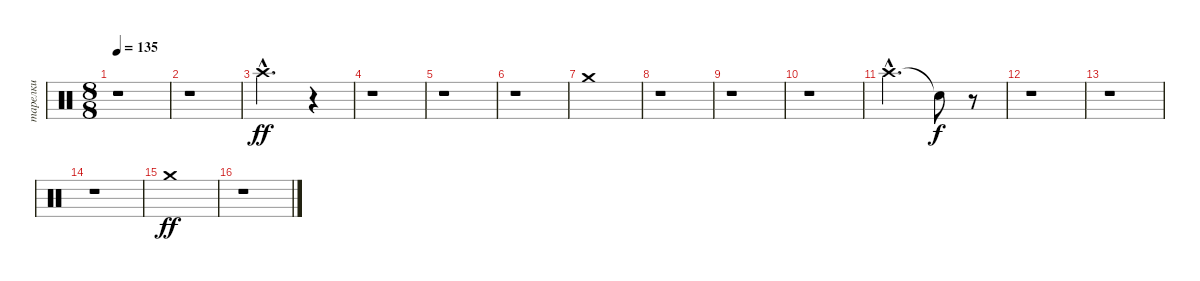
\track ("тарелки" "тарелки") {instrument percussion}
\staff {score}
\articulation defaults
\ts (8 8)
\tempo 135
\clef neutral
\ks c
r.1{dy f} |
r.1 |
"Crash high (hit)"{hac}.2{d dy ff} r.4 |
r.1 |
r.1 |
r.1 |
"Crash medium (hit)".1 |
r.1 |
r.1 |
r.1 |
"Crash high (hit)"{hac}.2{d} "Snare (hit)"{t}.8{dy f} r.8 |
r.1 |
r.1 |
r.1 |
"Crash medium (hit)".1{dy ff} |
r.1
